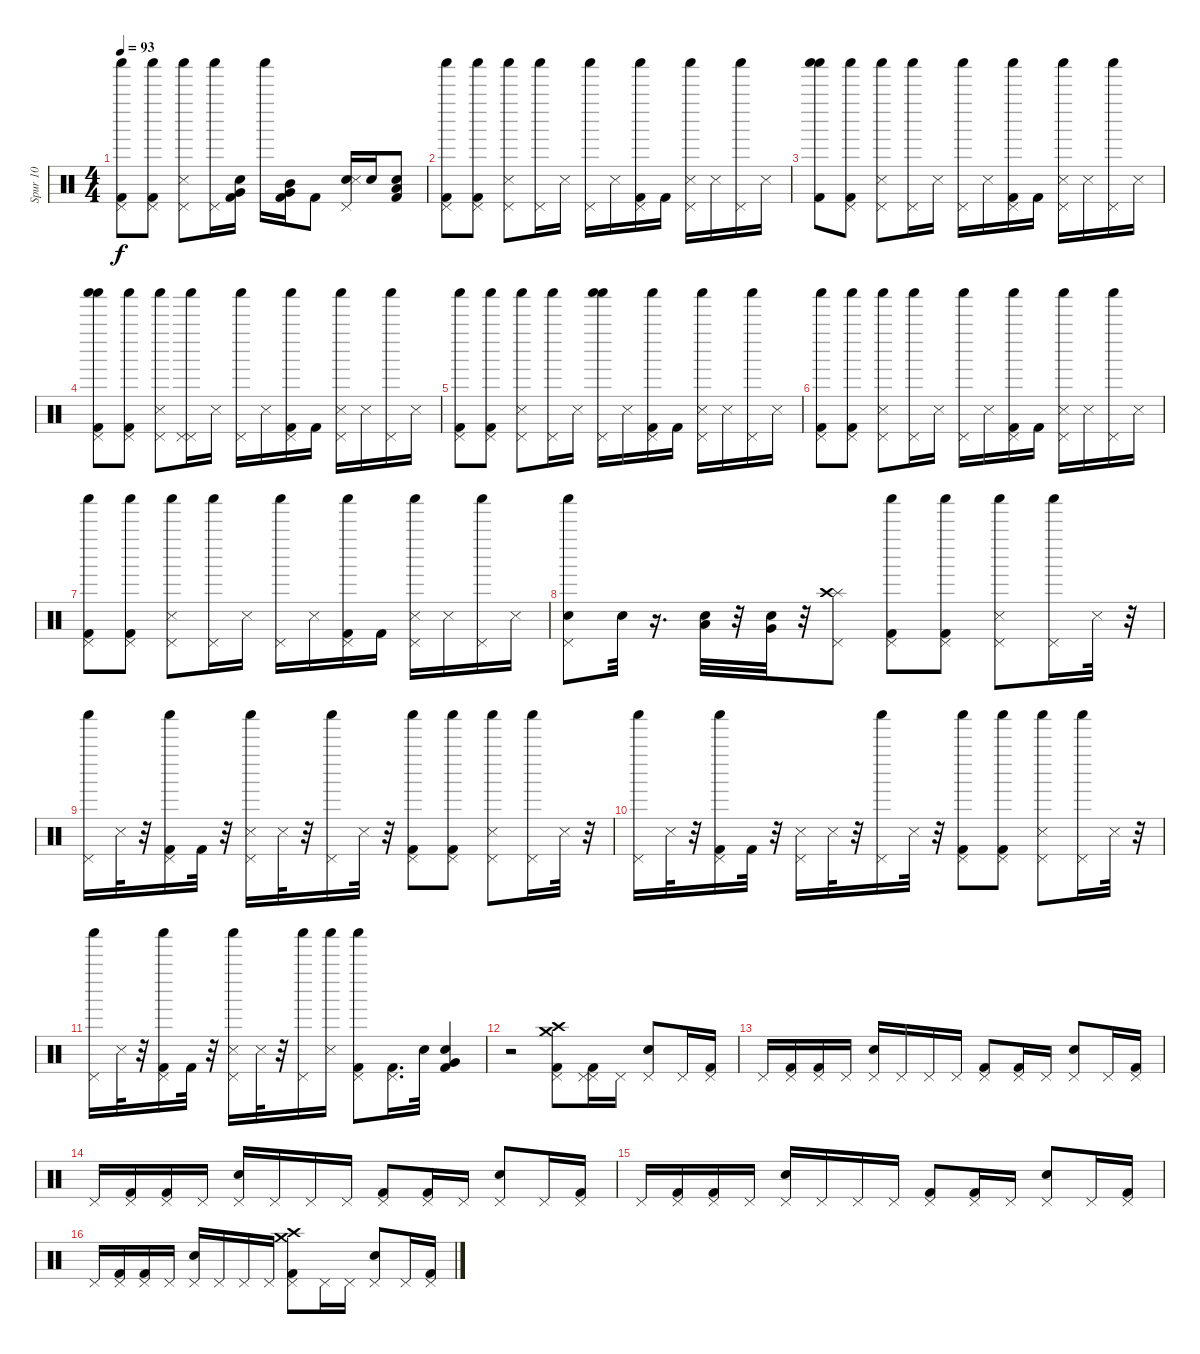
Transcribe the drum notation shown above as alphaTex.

\track ("Spur 10" "Spur 10") {instrument percussion}
\staff {score}
\articulation defaults
\ts (4 4)
\tempo 93
\clef neutral
\ks c
("Shaker (hit)" "Pedal Hi-Hat (hit)" "Kick (hit) 2").8{dy f} ("Shaker (hit)" "Pedal Hi-Hat (hit)" "Kick (hit) 2").8 ("Shaker (hit)" "Pedal Hi-Hat (hit)" "Snare (side stick) 3").8 ("Shaker (hit)" "Pedal Hi-Hat (hit)").16 ("Kick (hit) 2" "Very Low Tom (hit)" "Electric Snare (hit)").16 "Shaker (hit)".16 ("Kick (hit) 2" "Very Low Tom (hit)" "Mid Tom (hit)").16 "Kick (hit) 2".8 ("Pedal Hi-Hat (hit)" "Electric Snare (hit)" "Snare (side stick) 3").16 "Electric Snare (hit)".16 ("Low Tom (hit)" "Kick (hit) 2" "Electric Snare (hit)").8 |
("Shaker (hit)" "Pedal Hi-Hat (hit)" "Kick (hit) 2").8 ("Shaker (hit)" "Pedal Hi-Hat (hit)" "Kick (hit) 2").8 ("Snare (side stick) 3" "Shaker (hit)" "Pedal Hi-Hat (hit)").8 ("Shaker (hit)" "Pedal Hi-Hat (hit)").16 "Snare (side stick) 3".16 ("Shaker (hit)" "Pedal Hi-Hat (hit)").16 "Snare (side stick) 3".16 ("Shaker (hit)" "Pedal Hi-Hat (hit)" "Kick (hit) 2").16 "Kick (hit) 2".16 ("Shaker (hit)" "Pedal Hi-Hat (hit)" "Snare (side stick) 3").16 "Snare (side stick) 3".16 ("Shaker (hit)" "Pedal Hi-Hat (hit)").16 "Snare (side stick) 3".16 |
("Shaker (hit)" "Shaker (hit)" "Kick (hit) 2").8 ("Shaker (hit)" "Pedal Hi-Hat (hit)" "Kick (hit) 2").8 ("Shaker (hit)" "Pedal Hi-Hat (hit)" "Snare (side stick) 3").8 ("Shaker (hit)" "Pedal Hi-Hat (hit)").16 "Snare (side stick) 3".16 ("Shaker (hit)" "Pedal Hi-Hat (hit)").16 "Snare (side stick) 3".16 ("Shaker (hit)" "Pedal Hi-Hat (hit)" "Kick (hit) 2").16 "Kick (hit) 2".16 ("Shaker (hit)" "Pedal Hi-Hat (hit)" "Snare (side stick) 3").16 "Snare (side stick) 3".16 ("Shaker (hit)" "Pedal Hi-Hat (hit)").16 "Snare (side stick) 3".16 |
("Shaker (hit)" "Shaker (hit)" "Pedal Hi-Hat (hit)" "Kick (hit) 2").8 ("Shaker (hit)" "Pedal Hi-Hat (hit)" "Kick (hit) 2").8 ("Shaker (hit)" "Pedal Hi-Hat (hit)" "Snare (side stick) 3").8 ("Pedal Hi-Hat (hit)" "Shaker (hit)" "Pedal Hi-Hat (hit)").16 "Snare (side stick) 3".16 ("Shaker (hit)" "Pedal Hi-Hat (hit)").16 "Snare (side stick) 3".16 ("Shaker (hit)" "Pedal Hi-Hat (hit)" "Kick (hit) 2").16 "Kick (hit) 2".16 ("Shaker (hit)" "Pedal Hi-Hat (hit)" "Snare (side stick) 3").16 "Snare (side stick) 3".16 ("Shaker (hit)" "Pedal Hi-Hat (hit)").16 "Snare (side stick) 3".16 |
("Shaker (hit)" "Pedal Hi-Hat (hit)" "Kick (hit) 2").8 ("Shaker (hit)" "Pedal Hi-Hat (hit)" "Kick (hit) 2").8 ("Shaker (hit)" "Pedal Hi-Hat (hit)" "Snare (side stick) 3").8 ("Shaker (hit)" "Pedal Hi-Hat (hit)").16 "Snare (side stick) 3".16 ("Shaker (hit)" "Shaker (hit)" "Pedal Hi-Hat (hit)").16 "Snare (side stick) 3".16 ("Shaker (hit)" "Pedal Hi-Hat (hit)" "Kick (hit) 2").16 "Kick (hit) 2".16 ("Shaker (hit)" "Pedal Hi-Hat (hit)" "Snare (side stick) 3").16 "Snare (side stick) 3".16 ("Shaker (hit)" "Pedal Hi-Hat (hit)").16 "Snare (side stick) 3".16 |
("Shaker (hit)" "Pedal Hi-Hat (hit)" "Kick (hit) 2").8 ("Shaker (hit)" "Pedal Hi-Hat (hit)" "Kick (hit) 2").8 ("Shaker (hit)" "Pedal Hi-Hat (hit)" "Snare (side stick) 3").8 ("Shaker (hit)" "Pedal Hi-Hat (hit)").16 "Snare (side stick) 3".16 ("Shaker (hit)" "Pedal Hi-Hat (hit)").16 "Snare (side stick) 3".16 ("Shaker (hit)" "Pedal Hi-Hat (hit)" "Kick (hit) 2").16 "Kick (hit) 2".16 ("Shaker (hit)" "Pedal Hi-Hat (hit)" "Snare (side stick) 3").16 "Snare (side stick) 3".16 ("Shaker (hit)" "Pedal Hi-Hat (hit)").16 "Snare (side stick) 3".16 |
("Shaker (hit)" "Pedal Hi-Hat (hit)" "Kick (hit) 2").8 ("Shaker (hit)" "Pedal Hi-Hat (hit)" "Kick (hit) 2").8 ("Shaker (hit)" "Pedal Hi-Hat (hit)" "Snare (side stick) 3").8 ("Shaker (hit)" "Pedal Hi-Hat (hit)").16 "Snare (side stick) 3".16 ("Shaker (hit)" "Pedal Hi-Hat (hit)").16 "Snare (side stick) 3".16 ("Shaker (hit)" "Pedal Hi-Hat (hit)" "Kick (hit) 2").16 "Kick (hit) 2".16 ("Shaker (hit)" "Pedal Hi-Hat (hit)" "Snare (side stick) 3").16 "Snare (side stick) 3".16 ("Shaker (hit)" "Pedal Hi-Hat (hit)").16 "Snare (side stick) 3".16 |
("Shaker (hit)" "Pedal Hi-Hat (hit)" "Electric Snare (hit)").8 "Electric Snare (hit)".32 r.16{d} ("Low Tom (hit)" "Electric Snare (hit)").32 r.32 ("Very Low Tom (hit)" "Electric Snare (hit)").32 r.32 ("Pedal Hi-Hat (hit)" "Splash (hit)" "Crash high (hit)").8 ("Shaker (hit)" "Pedal Hi-Hat (hit)" "Kick (hit) 2").8 ("Shaker (hit)" "Pedal Hi-Hat (hit)" "Kick (hit) 2").8 ("Shaker (hit)" "Pedal Hi-Hat (hit)" "Snare (side stick) 3").8 ("Shaker (hit)" "Pedal Hi-Hat (hit)").16 "Snare (side stick) 3".32 r.32 |
("Shaker (hit)" "Pedal Hi-Hat (hit)").16 "Snare (side stick) 3".32 r.32 ("Shaker (hit)" "Pedal Hi-Hat (hit)" "Kick (hit) 2").16 "Kick (hit) 2".32 r.32 ("Shaker (hit)" "Pedal Hi-Hat (hit)" "Snare (side stick) 3").16 "Snare (side stick) 3".32 r.32 ("Shaker (hit)" "Pedal Hi-Hat (hit)").16 "Snare (side stick) 3".32 r.32 ("Shaker (hit)" "Pedal Hi-Hat (hit)" "Kick (hit) 2").8 ("Shaker (hit)" "Pedal Hi-Hat (hit)" "Kick (hit) 2").8 ("Shaker (hit)" "Pedal Hi-Hat (hit)" "Snare (side stick) 3").8 ("Shaker (hit)" "Pedal Hi-Hat (hit)").16 "Snare (side stick) 3".32 r.32 |
("Shaker (hit)" "Pedal Hi-Hat (hit)").16 "Snare (side stick) 3".32 r.32 ("Shaker (hit)" "Pedal Hi-Hat (hit)" "Kick (hit) 2").16 "Kick (hit) 2".32 r.32 ("Pedal Hi-Hat (hit)" "Snare (side stick) 3").16 "Snare (side stick) 3".32 r.32 ("Shaker (hit)" "Pedal Hi-Hat (hit)").16 "Snare (side stick) 3".32 r.32 ("Shaker (hit)" "Pedal Hi-Hat (hit)" "Kick (hit) 2").8 ("Shaker (hit)" "Pedal Hi-Hat (hit)" "Kick (hit) 2").8 ("Shaker (hit)" "Pedal Hi-Hat (hit)" "Snare (side stick) 3").8 ("Shaker (hit)" "Pedal Hi-Hat (hit)").16 "Snare (side stick) 3".32 r.32 |
("Shaker (hit)" "Pedal Hi-Hat (hit)").16 "Snare (side stick) 3".32 r.32 ("Shaker (hit)" "Pedal Hi-Hat (hit)" "Kick (hit) 2").16 "Kick (hit) 2".32 r.32 ("Shaker (hit)" "Pedal Hi-Hat (hit)" "Snare (side stick) 3").16 "Snare (side stick) 3".32 r.32 ("Shaker (hit)" "Pedal Hi-Hat (hit)").16 ("Shaker (hit)" "Snare (side stick) 3").16 ("Shaker (hit)" "Pedal Hi-Hat (hit)" "Kick (hit) 2").8 ("Pedal Hi-Hat (hit)" "Kick (hit) 2").16{d} "Electric Snare (hit)".32 ("Kick (hit) 2" "Very Low Tom (hit)" "Electric Snare (hit)").4 |
r.2 ("Kick (hit) 2" "Pedal Hi-Hat (hit)" "Crash medium (hit)" "Crash high (hit)").8 ("Kick (hit) 2" "Pedal Hi-Hat (hit)" "Pedal Hi-Hat (hit)").16 "Pedal Hi-Hat (hit)".16 ("Electric Snare (hit)" "Pedal Hi-Hat (hit)").8 "Pedal Hi-Hat (hit)".16 ("Kick (hit) 2" "Pedal Hi-Hat (hit)").16 |
"Pedal Hi-Hat (hit)".16 ("Kick (hit) 2" "Pedal Hi-Hat (hit)").16 ("Kick (hit) 2" "Pedal Hi-Hat (hit)").16 "Pedal Hi-Hat (hit)".16 ("Electric Snare (hit)" "Pedal Hi-Hat (hit)").16 "Pedal Hi-Hat (hit)".16 "Pedal Hi-Hat (hit)".16 "Pedal Hi-Hat (hit)".16 ("Kick (hit) 2" "Pedal Hi-Hat (hit)").8 ("Kick (hit) 2" "Pedal Hi-Hat (hit)").16 "Pedal Hi-Hat (hit)".16 ("Electric Snare (hit)" "Pedal Hi-Hat (hit)").8 "Pedal Hi-Hat (hit)".16 ("Kick (hit) 2" "Pedal Hi-Hat (hit)").16 |
"Pedal Hi-Hat (hit)".16 ("Kick (hit) 2" "Pedal Hi-Hat (hit)").16 ("Kick (hit) 2" "Pedal Hi-Hat (hit)").16 "Pedal Hi-Hat (hit)".16 ("Electric Snare (hit)" "Pedal Hi-Hat (hit)").16 "Pedal Hi-Hat (hit)".16 "Pedal Hi-Hat (hit)".16 "Pedal Hi-Hat (hit)".16 ("Kick (hit) 2" "Pedal Hi-Hat (hit)").8 ("Kick (hit) 2" "Pedal Hi-Hat (hit)").16 "Pedal Hi-Hat (hit)".16 ("Electric Snare (hit)" "Pedal Hi-Hat (hit)").8 "Pedal Hi-Hat (hit)".16 ("Kick (hit) 2" "Pedal Hi-Hat (hit)").16 |
"Pedal Hi-Hat (hit)".16 ("Kick (hit) 2" "Pedal Hi-Hat (hit)").16 ("Kick (hit) 2" "Pedal Hi-Hat (hit)").16 "Pedal Hi-Hat (hit)".16 ("Electric Snare (hit)" "Pedal Hi-Hat (hit)").16 "Pedal Hi-Hat (hit)".16 "Pedal Hi-Hat (hit)".16 "Pedal Hi-Hat (hit)".16 ("Kick (hit) 2" "Pedal Hi-Hat (hit)").8 ("Kick (hit) 2" "Pedal Hi-Hat (hit)").16 "Pedal Hi-Hat (hit)".16 ("Electric Snare (hit)" "Pedal Hi-Hat (hit)").8 "Pedal Hi-Hat (hit)".16 ("Kick (hit) 2" "Pedal Hi-Hat (hit)").16 |
"Pedal Hi-Hat (hit)".16 ("Kick (hit) 2" "Pedal Hi-Hat (hit)").16 ("Kick (hit) 2" "Pedal Hi-Hat (hit)").16 "Pedal Hi-Hat (hit)".16 ("Electric Snare (hit)" "Pedal Hi-Hat (hit)").16 "Pedal Hi-Hat (hit)".16 "Pedal Hi-Hat (hit)".16 "Pedal Hi-Hat (hit)".16 ("Kick (hit) 2" "Crash medium (hit)" "Crash high (hit)" "Pedal Hi-Hat (hit)").8 "Pedal Hi-Hat (hit)".16 "Pedal Hi-Hat (hit)".16 ("Electric Snare (hit)" "Pedal Hi-Hat (hit)").8 "Pedal Hi-Hat (hit)".16 ("Kick (hit) 2" "Pedal Hi-Hat (hit)").16
